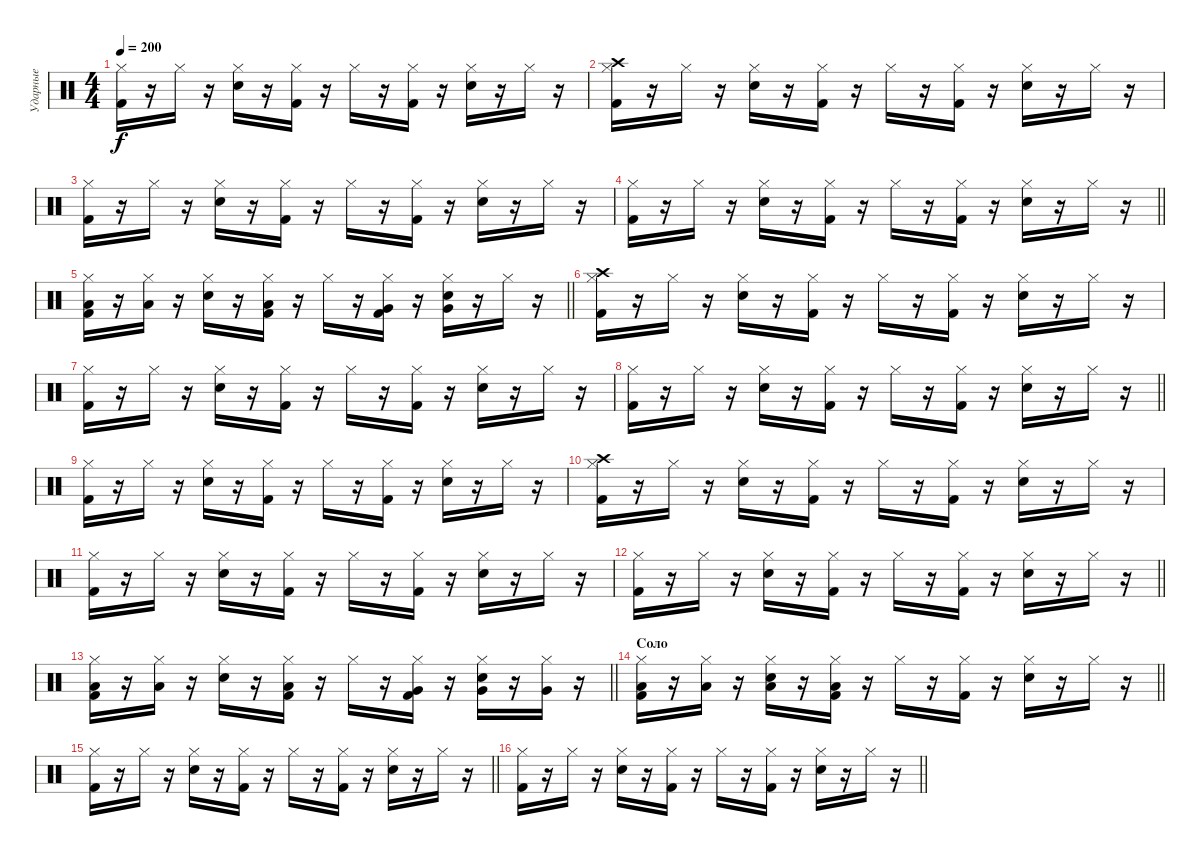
\track ("Ударные" "Ударные") {instrument percussion}
\staff {score}
\articulation defaults
\ts (4 4)
\tempo 200
\clef neutral
\ks c
("Kick (hit) 2" "Hi-Hat (closed)").16{dy f} r.16 "Hi-Hat (closed)".16 r.16 ("Snare (hit) 2" "Hi-Hat (closed)").16 r.16 ("Kick (hit) 2" "Hi-Hat (closed)").16 r.16 "Hi-Hat (closed)".16 r.16 ("Kick (hit) 2" "Hi-Hat (closed)").16 r.16 ("Snare (hit) 2" "Hi-Hat (closed)").16 r.16 "Hi-Hat (closed)".16 r.16 |
("Kick (hit) 2" "Crash high (hit)" "Hi-Hat (closed)").16 r.16 "Hi-Hat (closed)".16 r.16 ("Snare (hit) 2" "Hi-Hat (closed)").16 r.16 ("Kick (hit) 2" "Hi-Hat (closed)").16 r.16 "Hi-Hat (closed)".16 r.16 ("Kick (hit) 2" "Hi-Hat (closed)").16 r.16 ("Snare (hit) 2" "Hi-Hat (closed)").16 r.16 "Hi-Hat (closed)".16 r.16 |
("Kick (hit) 2" "Hi-Hat (closed)").16 r.16 "Hi-Hat (closed)".16 r.16 ("Snare (hit) 2" "Hi-Hat (closed)").16 r.16 ("Kick (hit) 2" "Hi-Hat (closed)").16 r.16 "Hi-Hat (closed)".16 r.16 ("Kick (hit) 2" "Hi-Hat (closed)").16 r.16 ("Snare (hit) 2" "Hi-Hat (closed)").16 r.16 "Hi-Hat (closed)".16 r.16 |
\barLineRight lightlight
("Kick (hit) 2" "Hi-Hat (closed)").16 r.16 "Hi-Hat (closed)".16 r.16 ("Snare (hit) 2" "Hi-Hat (closed)").16 r.16 ("Kick (hit) 2" "Hi-Hat (closed)").16 r.16 "Hi-Hat (closed)".16 r.16 ("Kick (hit) 2" "Hi-Hat (closed)").16 r.16 ("Snare (hit) 2" "Hi-Hat (closed)").16 r.16 "Hi-Hat (closed)".16 r.16 |
\barLineRight lightlight
("Kick (hit) 2" "Low Floor Tom (hit)" "Hi-Hat (closed)").16 r.16 ("Low Floor Tom (hit)" "Hi-Hat (closed)").16 r.16 ("Snare (hit) 2" "Hi-Hat (closed)").16 r.16 ("Kick (hit) 2" "Low Floor Tom (hit)" "Hi-Hat (closed)").16 r.16 "Hi-Hat (closed)".16 r.16 ("Kick (hit) 2" "Very Low Tom (hit)" "Hi-Hat (closed)").16 r.16 ("Snare (hit) 2" "Very Low Tom (hit)" "Hi-Hat (closed)").16 r.16 "Hi-Hat (closed)".16 r.16 |
("Kick (hit) 2" "Crash high (hit)" "Hi-Hat (closed)").16 r.16 "Hi-Hat (closed)".16 r.16 ("Snare (hit) 2" "Hi-Hat (closed)").16 r.16 ("Kick (hit) 2" "Hi-Hat (closed)").16 r.16 "Hi-Hat (closed)".16 r.16 ("Kick (hit) 2" "Hi-Hat (closed)").16 r.16 ("Snare (hit) 2" "Hi-Hat (closed)").16 r.16 "Hi-Hat (closed)".16 r.16 |
("Kick (hit) 2" "Hi-Hat (closed)").16 r.16 "Hi-Hat (closed)".16 r.16 ("Snare (hit) 2" "Hi-Hat (closed)").16 r.16 ("Kick (hit) 2" "Hi-Hat (closed)").16 r.16 "Hi-Hat (closed)".16 r.16 ("Kick (hit) 2" "Hi-Hat (closed)").16 r.16 ("Snare (hit) 2" "Hi-Hat (closed)").16 r.16 "Hi-Hat (closed)".16 r.16 |
\barLineRight lightlight
("Kick (hit) 2" "Hi-Hat (closed)").16 r.16 "Hi-Hat (closed)".16 r.16 ("Snare (hit) 2" "Hi-Hat (closed)").16 r.16 ("Kick (hit) 2" "Hi-Hat (closed)").16 r.16 "Hi-Hat (closed)".16 r.16 ("Kick (hit) 2" "Hi-Hat (closed)").16 r.16 ("Snare (hit) 2" "Hi-Hat (closed)").16 r.16 "Hi-Hat (closed)".16 r.16 |
("Kick (hit) 2" "Hi-Hat (closed)").16 r.16 "Hi-Hat (closed)".16 r.16 ("Snare (hit) 2" "Hi-Hat (closed)").16 r.16 ("Kick (hit) 2" "Hi-Hat (closed)").16 r.16 "Hi-Hat (closed)".16 r.16 ("Kick (hit) 2" "Hi-Hat (closed)").16 r.16 ("Snare (hit) 2" "Hi-Hat (closed)").16 r.16 "Hi-Hat (closed)".16 r.16 |
("Kick (hit) 2" "Crash high (hit)" "Hi-Hat (closed)").16 r.16 "Hi-Hat (closed)".16 r.16 ("Snare (hit) 2" "Hi-Hat (closed)").16 r.16 ("Kick (hit) 2" "Hi-Hat (closed)").16 r.16 "Hi-Hat (closed)".16 r.16 ("Kick (hit) 2" "Hi-Hat (closed)").16 r.16 ("Snare (hit) 2" "Hi-Hat (closed)").16 r.16 "Hi-Hat (closed)".16 r.16 |
("Kick (hit) 2" "Hi-Hat (closed)").16 r.16 "Hi-Hat (closed)".16 r.16 ("Snare (hit) 2" "Hi-Hat (closed)").16 r.16 ("Kick (hit) 2" "Hi-Hat (closed)").16 r.16 "Hi-Hat (closed)".16 r.16 ("Kick (hit) 2" "Hi-Hat (closed)").16 r.16 ("Snare (hit) 2" "Hi-Hat (closed)").16 r.16 "Hi-Hat (closed)".16 r.16 |
\barLineRight lightlight
("Kick (hit) 2" "Hi-Hat (closed)").16 r.16 "Hi-Hat (closed)".16 r.16 ("Snare (hit) 2" "Hi-Hat (closed)").16 r.16 ("Kick (hit) 2" "Hi-Hat (closed)").16 r.16 "Hi-Hat (closed)".16 r.16 ("Kick (hit) 2" "Hi-Hat (closed)").16 r.16 ("Snare (hit) 2" "Hi-Hat (closed)").16 r.16 "Hi-Hat (closed)".16 r.16 |
\barLineRight lightlight
("Kick (hit) 2" "Low Floor Tom (hit)" "Hi-Hat (closed)").16 r.16 ("Low Floor Tom (hit)" "Hi-Hat (closed)").16 r.16 ("Snare (hit) 2" "Hi-Hat (closed)").16 r.16 ("Kick (hit) 2" "Low Floor Tom (hit)" "Hi-Hat (closed)").16 r.16 "Hi-Hat (closed)".16 r.16 ("Kick (hit) 2" "Very Low Tom (hit)" "Hi-Hat (closed)").16 r.16 ("Snare (hit) 2" "Very Low Tom (hit)" "Hi-Hat (closed)").16 r.16 ("Very Low Tom (hit)" "Hi-Hat (closed)").16 r.16 |
\section ("" "Соло")
\barLineRight lightlight
("Kick (hit) 2" "Low Tom (hit)" "Hi-Hat (closed)").16 r.16 ("Low Tom (hit)" "Hi-Hat (closed)").16 r.16 ("Snare (hit) 2" "Low Tom (hit)" "Hi-Hat (closed)").16 r.16 ("Kick (hit) 2" "Low Tom (hit)" "Hi-Hat (closed)").16 r.16 "Hi-Hat (closed)".16 r.16 ("Kick (hit) 2" "Hi-Hat (closed)").16 r.16 ("Snare (hit) 2" "Hi-Hat (closed)").16 r.16 "Hi-Hat (closed)".16 r.16 |
\barLineRight lightlight
("Kick (hit) 2" "Hi-Hat (closed)").16 r.16 "Hi-Hat (closed)".16 r.16 ("Snare (hit) 2" "Hi-Hat (closed)").16 r.16 ("Kick (hit) 2" "Hi-Hat (closed)").16 r.16 "Hi-Hat (closed)".16 r.16 ("Kick (hit) 2" "Hi-Hat (closed)").16 r.16 ("Snare (hit) 2" "Hi-Hat (closed)").16 r.16 "Hi-Hat (closed)".16 r.16 |
\barLineRight lightlight
("Kick (hit) 2" "Hi-Hat (closed)").16 r.16 "Hi-Hat (closed)".16 r.16 ("Snare (hit) 2" "Hi-Hat (closed)").16 r.16 ("Kick (hit) 2" "Hi-Hat (closed)").16 r.16 "Hi-Hat (closed)".16 r.16 ("Kick (hit) 2" "Hi-Hat (closed)").16 r.16 ("Snare (hit) 2" "Hi-Hat (closed)").16 r.16 "Hi-Hat (closed)".16 r.16
